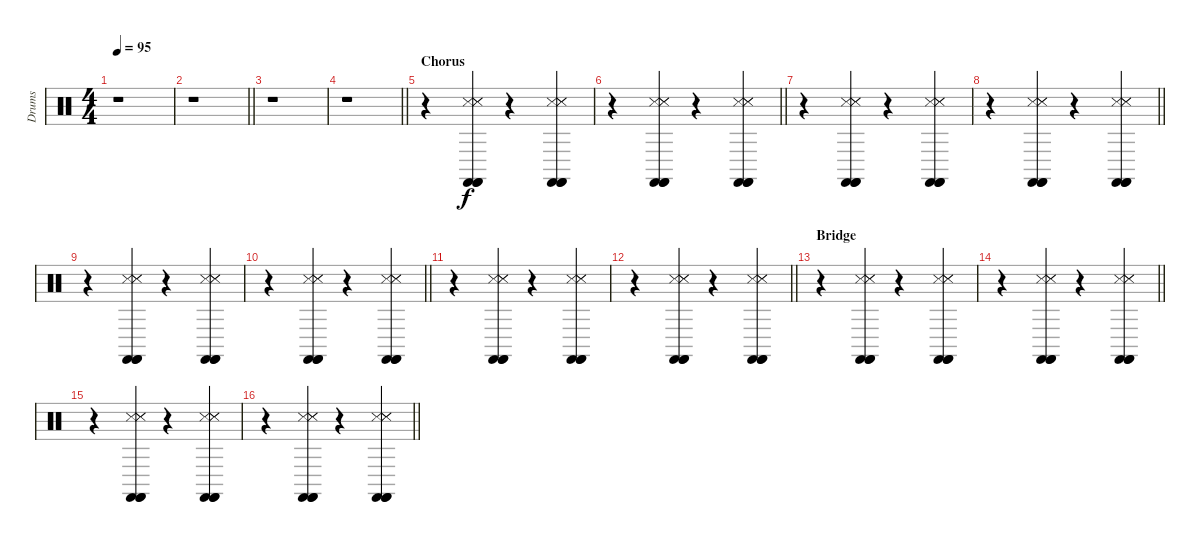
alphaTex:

\track ("Drums" "Drums") {instrument percussion}
\staff {score}
\articulation defaults
\ts (4 4)
\tempo 95
\clef neutral
\ks c
r.1{dy f} |
\barLineRight lightlight
r.1 |
r.1 |
\barLineRight lightlight
r.1 |
\section ("" "Chorus")
r.4 ("Castanets (hit)" "Snare (side stick) 3" "Castanets (hit)" "Snare (side stick) 3" "Snare (side stick) 3" "Castanets (hit)").4 r.4 ("Castanets (hit)" "Snare (side stick) 3" "Castanets (hit)" "Snare (side stick) 3" "Snare (side stick) 3" "Castanets (hit)").4 |
\barLineRight lightlight
r.4 ("Castanets (hit)" "Snare (side stick) 3" "Castanets (hit)" "Snare (side stick) 3" "Snare (side stick) 3" "Castanets (hit)").4 r.4 ("Castanets (hit)" "Snare (side stick) 3" "Castanets (hit)" "Snare (side stick) 3" "Snare (side stick) 3" "Castanets (hit)").4 |
r.4 ("Castanets (hit)" "Snare (side stick) 3" "Castanets (hit)" "Snare (side stick) 3" "Snare (side stick) 3" "Castanets (hit)").4 r.4 ("Castanets (hit)" "Snare (side stick) 3" "Castanets (hit)" "Snare (side stick) 3" "Snare (side stick) 3" "Castanets (hit)").4 |
\barLineRight lightlight
r.4 ("Castanets (hit)" "Snare (side stick) 3" "Castanets (hit)" "Snare (side stick) 3" "Snare (side stick) 3" "Castanets (hit)").4 r.4 ("Castanets (hit)" "Snare (side stick) 3" "Castanets (hit)" "Snare (side stick) 3" "Snare (side stick) 3" "Castanets (hit)").4 |
r.4 ("Castanets (hit)" "Snare (side stick) 3" "Castanets (hit)" "Snare (side stick) 3" "Snare (side stick) 3" "Castanets (hit)").4 r.4 ("Castanets (hit)" "Snare (side stick) 3" "Castanets (hit)" "Snare (side stick) 3" "Snare (side stick) 3" "Castanets (hit)").4 |
\barLineRight lightlight
r.4 ("Castanets (hit)" "Snare (side stick) 3" "Castanets (hit)" "Snare (side stick) 3" "Snare (side stick) 3" "Castanets (hit)").4 r.4 ("Castanets (hit)" "Snare (side stick) 3" "Castanets (hit)" "Snare (side stick) 3" "Snare (side stick) 3" "Castanets (hit)").4 |
r.4 ("Castanets (hit)" "Snare (side stick) 3" "Castanets (hit)" "Snare (side stick) 3" "Snare (side stick) 3" "Castanets (hit)").4 r.4 ("Castanets (hit)" "Snare (side stick) 3" "Castanets (hit)" "Snare (side stick) 3" "Snare (side stick) 3" "Castanets (hit)").4 |
\barLineRight lightlight
r.4 ("Castanets (hit)" "Snare (side stick) 3" "Castanets (hit)" "Snare (side stick) 3" "Snare (side stick) 3" "Castanets (hit)").4 r.4 ("Castanets (hit)" "Snare (side stick) 3" "Castanets (hit)" "Snare (side stick) 3" "Snare (side stick) 3" "Castanets (hit)").4 |
\section ("" "Bridge")
r.4 ("Castanets (hit)" "Snare (side stick) 3" "Castanets (hit)" "Snare (side stick) 3" "Snare (side stick) 3" "Castanets (hit)").4 r.4 ("Castanets (hit)" "Snare (side stick) 3" "Castanets (hit)" "Snare (side stick) 3" "Snare (side stick) 3" "Castanets (hit)").4 |
\barLineRight lightlight
r.4 ("Castanets (hit)" "Snare (side stick) 3" "Castanets (hit)" "Snare (side stick) 3" "Snare (side stick) 3" "Castanets (hit)").4 r.4 ("Castanets (hit)" "Snare (side stick) 3" "Castanets (hit)" "Snare (side stick) 3" "Snare (side stick) 3" "Castanets (hit)").4 |
r.4 ("Castanets (hit)" "Snare (side stick) 3" "Castanets (hit)" "Snare (side stick) 3" "Snare (side stick) 3" "Castanets (hit)").4 r.4 ("Castanets (hit)" "Snare (side stick) 3" "Castanets (hit)" "Snare (side stick) 3" "Snare (side stick) 3" "Castanets (hit)").4 |
\barLineRight lightlight
r.4 ("Castanets (hit)" "Snare (side stick) 3" "Castanets (hit)" "Snare (side stick) 3" "Snare (side stick) 3" "Castanets (hit)").4 r.4 ("Castanets (hit)" "Snare (side stick) 3" "Castanets (hit)" "Snare (side stick) 3" "Snare (side stick) 3" "Castanets (hit)").4
